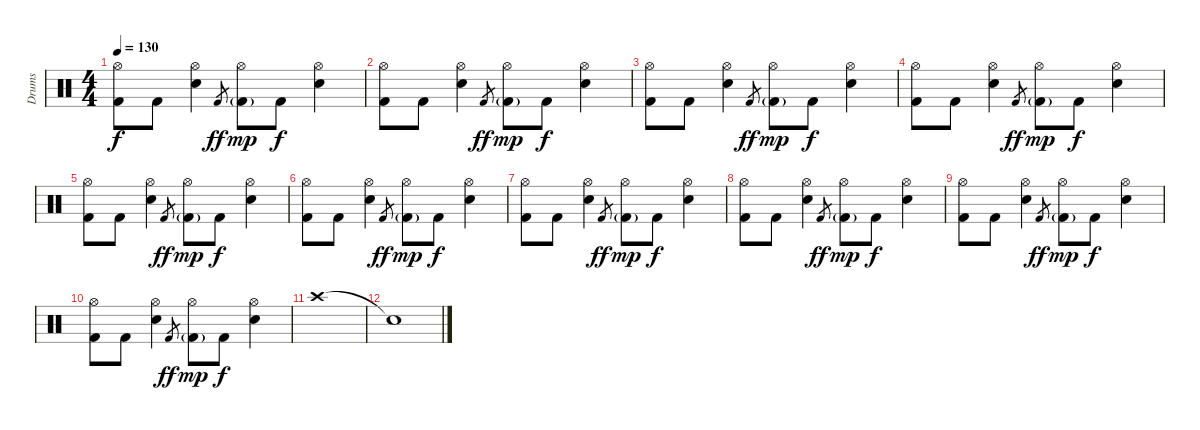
\track ("Drums" "Drums") {instrument percussion}
\staff {score}
\articulation defaults
\ts (4 4)
\tempo 130
\clef neutral
\ks c
("Hi-Hat (open)" "Kick (hit) 2").8{dy f} "Kick (hit) 2".8 ("Hi-Hat (open)" "Electric Snare (hit)").4 "Kick (hit) 2".8{gr dy ff} ("Hi-Hat (open)" "Kick (hit) 2"{g}).8{dy mp} "Kick (hit) 2".8{dy f} ("Hi-Hat (open)" "Electric Snare (hit)").4 |
("Hi-Hat (open)" "Kick (hit) 2").8 "Kick (hit) 2".8 ("Hi-Hat (open)" "Electric Snare (hit)").4 "Kick (hit) 2".8{gr dy ff} ("Hi-Hat (open)" "Kick (hit) 2"{g}).8{dy mp} "Kick (hit) 2".8{dy f} ("Hi-Hat (open)" "Electric Snare (hit)").4 |
("Hi-Hat (open)" "Kick (hit) 2").8 "Kick (hit) 2".8 ("Hi-Hat (open)" "Electric Snare (hit)").4 "Kick (hit) 2".8{gr dy ff} ("Hi-Hat (open)" "Kick (hit) 2"{g}).8{dy mp} "Kick (hit) 2".8{dy f} ("Hi-Hat (open)" "Electric Snare (hit)").4 |
("Hi-Hat (open)" "Kick (hit) 2").8 "Kick (hit) 2".8 ("Hi-Hat (open)" "Electric Snare (hit)").4 "Kick (hit) 2".8{gr dy ff} ("Hi-Hat (open)" "Kick (hit) 2"{g}).8{dy mp} "Kick (hit) 2".8{dy f} ("Hi-Hat (open)" "Electric Snare (hit)").4 |
("Hi-Hat (open)" "Kick (hit) 2").8 "Kick (hit) 2".8 ("Hi-Hat (open)" "Electric Snare (hit)").4 "Kick (hit) 2".8{gr dy ff} ("Hi-Hat (open)" "Kick (hit) 2"{g}).8{dy mp} "Kick (hit) 2".8{dy f} ("Hi-Hat (open)" "Electric Snare (hit)").4 |
("Hi-Hat (open)" "Kick (hit) 2").8 "Kick (hit) 2".8 ("Hi-Hat (open)" "Electric Snare (hit)").4 "Kick (hit) 2".8{gr dy ff} ("Hi-Hat (open)" "Kick (hit) 2"{g}).8{dy mp} "Kick (hit) 2".8{dy f} ("Hi-Hat (open)" "Electric Snare (hit)").4 |
("Hi-Hat (open)" "Kick (hit) 2").8 "Kick (hit) 2".8 ("Hi-Hat (open)" "Electric Snare (hit)").4 "Kick (hit) 2".8{gr dy ff} ("Hi-Hat (open)" "Kick (hit) 2"{g}).8{dy mp} "Kick (hit) 2".8{dy f} ("Hi-Hat (open)" "Electric Snare (hit)").4 |
("Hi-Hat (open)" "Kick (hit) 2").8 "Kick (hit) 2".8 ("Hi-Hat (open)" "Electric Snare (hit)").4 "Kick (hit) 2".8{gr dy ff} ("Hi-Hat (open)" "Kick (hit) 2"{g}).8{dy mp} "Kick (hit) 2".8{dy f} ("Hi-Hat (open)" "Electric Snare (hit)").4 |
("Hi-Hat (open)" "Kick (hit) 2").8 "Kick (hit) 2".8 ("Hi-Hat (open)" "Electric Snare (hit)").4 "Kick (hit) 2".8{gr dy ff} ("Hi-Hat (open)" "Kick (hit) 2"{g}).8{dy mp} "Kick (hit) 2".8{dy f} ("Hi-Hat (open)" "Electric Snare (hit)").4 |
("Hi-Hat (open)" "Kick (hit) 2").8 "Kick (hit) 2".8 ("Hi-Hat (open)" "Electric Snare (hit)").4 "Kick (hit) 2".8{gr dy ff} ("Hi-Hat (open)" "Kick (hit) 2"{g}).8{dy mp} "Kick (hit) 2".8{dy f} ("Hi-Hat (open)" "Electric Snare (hit)").4 |
"Crash high (hit)".1 |
"Snare (hit)"{t}.1
